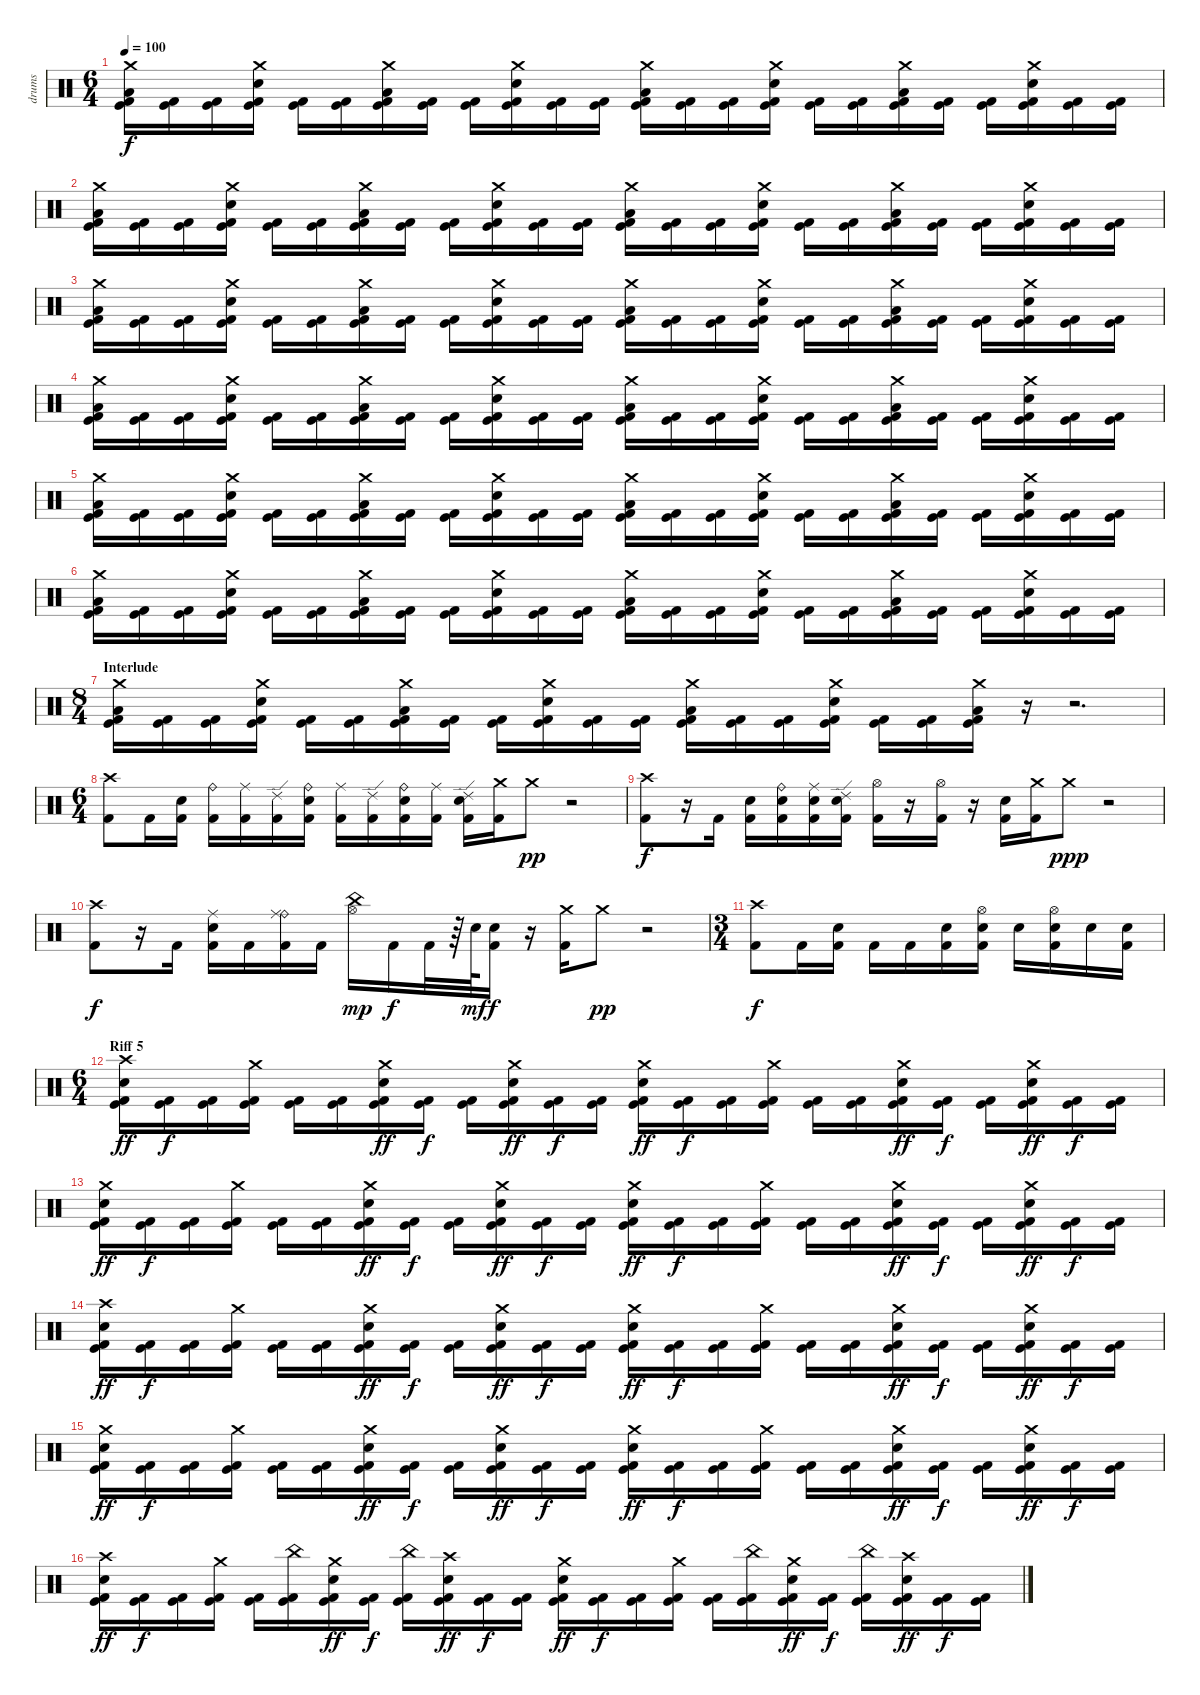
\track ("drums" "drums") {instrument percussion}
\staff {score}
\articulation defaults
\ts (6 4)
\tempo 100
\clef neutral
\ks c
("Crash medium (hit)" "Low Floor Tom (hit)" "Kick (hit)" "Kick (hit) 2").16{dy f} ("Kick (hit)" "Kick (hit) 2").16 ("Kick (hit)" "Kick (hit) 2").16 ("Crash medium (hit)" "Snare (hit) 2" "Kick (hit)" "Kick (hit) 2").16 ("Kick (hit)" "Kick (hit) 2").16 ("Kick (hit)" "Kick (hit) 2").16 ("Crash medium (hit)" "Low Floor Tom (hit)" "Kick (hit)" "Kick (hit) 2").16 ("Kick (hit)" "Kick (hit) 2").16 ("Kick (hit)" "Kick (hit) 2").16 ("Crash medium (hit)" "Snare (hit) 2" "Kick (hit)" "Kick (hit) 2").16 ("Kick (hit)" "Kick (hit) 2").16 ("Kick (hit)" "Kick (hit) 2").16 ("Crash medium (hit)" "Low Floor Tom (hit)" "Kick (hit)" "Kick (hit) 2").16 ("Kick (hit)" "Kick (hit) 2").16 ("Kick (hit)" "Kick (hit) 2").16 ("Crash medium (hit)" "Snare (hit) 2" "Kick (hit)" "Kick (hit) 2").16 ("Kick (hit)" "Kick (hit) 2").16 ("Kick (hit)" "Kick (hit) 2").16 ("Crash medium (hit)" "Low Floor Tom (hit)" "Kick (hit)" "Kick (hit) 2").16 ("Kick (hit)" "Kick (hit) 2").16 ("Kick (hit)" "Kick (hit) 2").16 ("Crash medium (hit)" "Snare (hit) 2" "Kick (hit)" "Kick (hit) 2").16 ("Kick (hit)" "Kick (hit) 2").16 ("Kick (hit)" "Kick (hit) 2").16 |
("Crash medium (hit)" "Low Floor Tom (hit)" "Kick (hit)" "Kick (hit) 2").16 ("Kick (hit)" "Kick (hit) 2").16 ("Kick (hit)" "Kick (hit) 2").16 ("Crash medium (hit)" "Snare (hit) 2" "Kick (hit)" "Kick (hit) 2").16 ("Kick (hit)" "Kick (hit) 2").16 ("Kick (hit)" "Kick (hit) 2").16 ("Crash medium (hit)" "Low Floor Tom (hit)" "Kick (hit)" "Kick (hit) 2").16 ("Kick (hit)" "Kick (hit) 2").16 ("Kick (hit)" "Kick (hit) 2").16 ("Crash medium (hit)" "Snare (hit) 2" "Kick (hit)" "Kick (hit) 2").16 ("Kick (hit)" "Kick (hit) 2").16 ("Kick (hit)" "Kick (hit) 2").16 ("Crash medium (hit)" "Low Floor Tom (hit)" "Kick (hit)" "Kick (hit) 2").16 ("Kick (hit)" "Kick (hit) 2").16 ("Kick (hit)" "Kick (hit) 2").16 ("Crash medium (hit)" "Snare (hit) 2" "Kick (hit)" "Kick (hit) 2").16 ("Kick (hit)" "Kick (hit) 2").16 ("Kick (hit)" "Kick (hit) 2").16 ("Crash medium (hit)" "Low Floor Tom (hit)" "Kick (hit)" "Kick (hit) 2").16 ("Kick (hit)" "Kick (hit) 2").16 ("Kick (hit)" "Kick (hit) 2").16 ("Crash medium (hit)" "Snare (hit) 2" "Kick (hit)" "Kick (hit) 2").16 ("Kick (hit)" "Kick (hit) 2").16 ("Kick (hit)" "Kick (hit) 2").16 |
("Crash medium (hit)" "Low Floor Tom (hit)" "Kick (hit)" "Kick (hit) 2").16 ("Kick (hit)" "Kick (hit) 2").16 ("Kick (hit)" "Kick (hit) 2").16 ("Crash medium (hit)" "Snare (hit) 2" "Kick (hit)" "Kick (hit) 2").16 ("Kick (hit)" "Kick (hit) 2").16 ("Kick (hit)" "Kick (hit) 2").16 ("Crash medium (hit)" "Low Floor Tom (hit)" "Kick (hit)" "Kick (hit) 2").16 ("Kick (hit)" "Kick (hit) 2").16 ("Kick (hit)" "Kick (hit) 2").16 ("Crash medium (hit)" "Snare (hit) 2" "Kick (hit)" "Kick (hit) 2").16 ("Kick (hit)" "Kick (hit) 2").16 ("Kick (hit)" "Kick (hit) 2").16 ("Crash medium (hit)" "Low Floor Tom (hit)" "Kick (hit)" "Kick (hit) 2").16 ("Kick (hit)" "Kick (hit) 2").16 ("Kick (hit)" "Kick (hit) 2").16 ("Crash medium (hit)" "Snare (hit) 2" "Kick (hit)" "Kick (hit) 2").16 ("Kick (hit)" "Kick (hit) 2").16 ("Kick (hit)" "Kick (hit) 2").16 ("Crash medium (hit)" "Low Floor Tom (hit)" "Kick (hit)" "Kick (hit) 2").16 ("Kick (hit)" "Kick (hit) 2").16 ("Kick (hit)" "Kick (hit) 2").16 ("Crash medium (hit)" "Snare (hit) 2" "Kick (hit)" "Kick (hit) 2").16 ("Kick (hit)" "Kick (hit) 2").16 ("Kick (hit)" "Kick (hit) 2").16 |
("Crash medium (hit)" "Low Floor Tom (hit)" "Kick (hit)" "Kick (hit) 2").16 ("Kick (hit)" "Kick (hit) 2").16 ("Kick (hit)" "Kick (hit) 2").16 ("Crash medium (hit)" "Snare (hit) 2" "Kick (hit)" "Kick (hit) 2").16 ("Kick (hit)" "Kick (hit) 2").16 ("Kick (hit)" "Kick (hit) 2").16 ("Crash medium (hit)" "Low Floor Tom (hit)" "Kick (hit)" "Kick (hit) 2").16 ("Kick (hit)" "Kick (hit) 2").16 ("Kick (hit)" "Kick (hit) 2").16 ("Crash medium (hit)" "Snare (hit) 2" "Kick (hit)" "Kick (hit) 2").16 ("Kick (hit)" "Kick (hit) 2").16 ("Kick (hit)" "Kick (hit) 2").16 ("Crash medium (hit)" "Low Floor Tom (hit)" "Kick (hit)" "Kick (hit) 2").16 ("Kick (hit)" "Kick (hit) 2").16 ("Kick (hit)" "Kick (hit) 2").16 ("Crash medium (hit)" "Snare (hit) 2" "Kick (hit)" "Kick (hit) 2").16 ("Kick (hit)" "Kick (hit) 2").16 ("Kick (hit)" "Kick (hit) 2").16 ("Crash medium (hit)" "Low Floor Tom (hit)" "Kick (hit)" "Kick (hit) 2").16 ("Kick (hit)" "Kick (hit) 2").16 ("Kick (hit)" "Kick (hit) 2").16 ("Crash medium (hit)" "Snare (hit) 2" "Kick (hit)" "Kick (hit) 2").16 ("Kick (hit)" "Kick (hit) 2").16 ("Kick (hit)" "Kick (hit) 2").16 |
("Crash medium (hit)" "Low Floor Tom (hit)" "Kick (hit)" "Kick (hit) 2").16 ("Kick (hit)" "Kick (hit) 2").16 ("Kick (hit)" "Kick (hit) 2").16 ("Crash medium (hit)" "Snare (hit) 2" "Kick (hit)" "Kick (hit) 2").16 ("Kick (hit)" "Kick (hit) 2").16 ("Kick (hit)" "Kick (hit) 2").16 ("Crash medium (hit)" "Low Floor Tom (hit)" "Kick (hit)" "Kick (hit) 2").16 ("Kick (hit)" "Kick (hit) 2").16 ("Kick (hit)" "Kick (hit) 2").16 ("Crash medium (hit)" "Snare (hit) 2" "Kick (hit)" "Kick (hit) 2").16 ("Kick (hit)" "Kick (hit) 2").16 ("Kick (hit)" "Kick (hit) 2").16 ("Crash medium (hit)" "Low Floor Tom (hit)" "Kick (hit)" "Kick (hit) 2").16 ("Kick (hit)" "Kick (hit) 2").16 ("Kick (hit)" "Kick (hit) 2").16 ("Crash medium (hit)" "Snare (hit) 2" "Kick (hit)" "Kick (hit) 2").16 ("Kick (hit)" "Kick (hit) 2").16 ("Kick (hit)" "Kick (hit) 2").16 ("Crash medium (hit)" "Low Floor Tom (hit)" "Kick (hit)" "Kick (hit) 2").16 ("Kick (hit)" "Kick (hit) 2").16 ("Kick (hit)" "Kick (hit) 2").16 ("Crash medium (hit)" "Snare (hit) 2" "Kick (hit)" "Kick (hit) 2").16 ("Kick (hit)" "Kick (hit) 2").16 ("Kick (hit)" "Kick (hit) 2").16 |
("Crash medium (hit)" "Low Floor Tom (hit)" "Kick (hit)" "Kick (hit) 2").16 ("Kick (hit)" "Kick (hit) 2").16 ("Kick (hit)" "Kick (hit) 2").16 ("Crash medium (hit)" "Snare (hit) 2" "Kick (hit)" "Kick (hit) 2").16 ("Kick (hit)" "Kick (hit) 2").16 ("Kick (hit)" "Kick (hit) 2").16 ("Crash medium (hit)" "Low Floor Tom (hit)" "Kick (hit)" "Kick (hit) 2").16 ("Kick (hit)" "Kick (hit) 2").16 ("Kick (hit)" "Kick (hit) 2").16 ("Crash medium (hit)" "Snare (hit) 2" "Kick (hit)" "Kick (hit) 2").16 ("Kick (hit)" "Kick (hit) 2").16 ("Kick (hit)" "Kick (hit) 2").16 ("Crash medium (hit)" "Low Floor Tom (hit)" "Kick (hit)" "Kick (hit) 2").16 ("Kick (hit)" "Kick (hit) 2").16 ("Kick (hit)" "Kick (hit) 2").16 ("Crash medium (hit)" "Snare (hit) 2" "Kick (hit)" "Kick (hit) 2").16 ("Kick (hit)" "Kick (hit) 2").16 ("Kick (hit)" "Kick (hit) 2").16 ("Crash medium (hit)" "Low Floor Tom (hit)" "Kick (hit)" "Kick (hit) 2").16 ("Kick (hit)" "Kick (hit) 2").16 ("Kick (hit)" "Kick (hit) 2").16 ("Crash medium (hit)" "Snare (hit) 2" "Kick (hit)" "Kick (hit) 2").16 ("Kick (hit)" "Kick (hit) 2").16 ("Kick (hit)" "Kick (hit) 2").16 |
\ts (8 4)
\section ("" "Interlude")
("Crash medium (hit)" "Low Floor Tom (hit)" "Kick (hit)" "Kick (hit) 2").16 ("Kick (hit)" "Kick (hit) 2").16 ("Kick (hit)" "Kick (hit) 2").16 ("Crash medium (hit)" "Snare (hit) 2" "Kick (hit)" "Kick (hit) 2").16 ("Kick (hit)" "Kick (hit) 2").16 ("Kick (hit)" "Kick (hit) 2").16 ("Crash medium (hit)" "Low Floor Tom (hit)" "Kick (hit)" "Kick (hit) 2").16 ("Kick (hit)" "Kick (hit) 2").16 ("Kick (hit)" "Kick (hit) 2").16 ("Crash medium (hit)" "Snare (hit) 2" "Kick (hit)" "Kick (hit) 2").16 ("Kick (hit)" "Kick (hit) 2").16 ("Kick (hit)" "Kick (hit) 2").16 ("Crash medium (hit)" "Low Floor Tom (hit)" "Kick (hit)" "Kick (hit) 2").16 ("Kick (hit)" "Kick (hit) 2").16 ("Kick (hit)" "Kick (hit) 2").16 ("Crash medium (hit)" "Snare (hit) 2" "Kick (hit)" "Kick (hit) 2").16 ("Kick (hit)" "Kick (hit) 2").16 ("Kick (hit)" "Kick (hit) 2").16 ("Crash medium (hit)" "Low Floor Tom (hit)" "Kick (hit)" "Kick (hit) 2").16 r.16 r.2{d} |
\ts (6 4)
("Crash high (hit)" "Kick (hit) 2").8 "Kick (hit) 2".16 ("Electric Snare (hit)" "Kick (hit) 2").16 ("Ride (bell)" "Kick (hit) 2").16 ("Ride (middle)" "Kick (hit) 2").16 ("Ride (edge) 2" "Kick (hit) 2").16 ("Ride (bell)" "Electric Snare (hit)" "Kick (hit) 2").16 ("Ride (middle)" "Kick (hit) 2").16 ("Ride (edge) 2" "Kick (hit) 2").16 ("Ride (bell)" "Electric Snare (hit)" "Kick (hit) 2").16 ("Ride (middle)" "Kick (hit) 2").16 ("Ride (edge) 2" "Electric Snare (hit)" "Kick (hit) 2").16 ("Crash medium (hit)" "Kick (hit) 2").16 "Crash medium (hit)".8{dy pp} r.2 |
("Crash high (hit)" "Kick (hit) 2").8{dy f} r.16 "Kick (hit) 2".16 ("Electric Snare (hit)" "Kick (hit) 2").16 ("Ride (bell)" "Electric Snare (hit)" "Kick (hit) 2").16 ("Ride (middle)" "Electric Snare (hit)" "Kick (hit) 2").16 ("Ride (edge) 2" "Electric Snare (hit)" "Kick (hit) 2").16 ("Hi-Hat (open)" "Kick (hit) 2").16 r.16 ("Hi-Hat (open)" "Kick (hit) 2").16 r.16 ("Electric Snare (hit)" "Kick (hit) 2").16 ("Crash medium (hit)" "Kick (hit) 2").16 "Crash medium (hit)".8{dy ppp} r.2 |
("Crash high (hit)" "Kick (hit) 2").8{dy f} r.16 "Kick (hit) 2".16 ("Ride (middle)" "Electric Snare (hit)" "Kick (hit) 2").16 "Kick (hit) 2".16 ("Ride (bell)" "Ride (middle)" "Kick (hit) 2").16{balance 16} "Kick (hit) 2".16{balance 8} ("China (hit)" "Hi-Hat (open)").16{dy mp} "Kick (hit) 2".16{dy f} "Kick (hit) 2".32 r.64 "Electric Snare (hit)".64{dy mf} ("Electric Snare (hit)" "Kick (hit) 2").16{dy f} r.16 ("Crash medium (hit)" "Kick (hit) 2").16 "Crash medium (hit)".8{dy pp} r.2 |
\ts (3 4)
("Crash high (hit)" "Kick (hit) 2").8{dy f} "Kick (hit) 2".16 ("Electric Snare (hit)" "Kick (hit) 2").16 "Kick (hit) 2".16 "Kick (hit) 2".16 ("Electric Snare (hit)" "Kick (hit) 2").16 ("Hi-Hat (open)" "Electric Snare (hit)" "Kick (hit) 2").16 "Electric Snare (hit)".16 ("Hi-Hat (open)" "Electric Snare (hit)" "Kick (hit) 2").16 "Electric Snare (hit)".16 ("Electric Snare (hit)" "Kick (hit) 2").16 |
\ts (6 4)
\section ("" "Riff 5")
("Crash high (hit)" "Electric Snare (hit)" "Kick (hit)" "Kick (hit) 2").16{dy ff} ("Kick (hit)" "Kick (hit) 2").16{dy f} ("Kick (hit)" "Kick (hit) 2").16 ("Crash medium (hit)" "Kick (hit)" "Kick (hit) 2").16 ("Kick (hit)" "Kick (hit) 2").16 ("Kick (hit)" "Kick (hit) 2").16 ("Crash medium (hit)" "Electric Snare (hit)" "Kick (hit)" "Kick (hit) 2").16{dy ff} ("Kick (hit)" "Kick (hit) 2").16{dy f} ("Kick (hit)" "Kick (hit) 2").16 ("Crash medium (hit)" "Electric Snare (hit)" "Kick (hit)" "Kick (hit) 2").16{dy ff} ("Kick (hit)" "Kick (hit) 2").16{dy f} ("Kick (hit)" "Kick (hit) 2").16 ("Crash medium (hit)" "Electric Snare (hit)" "Kick (hit)" "Kick (hit) 2").16{dy ff} ("Kick (hit)" "Kick (hit) 2").16{dy f} ("Kick (hit)" "Kick (hit) 2").16 ("Crash medium (hit)" "Kick (hit)" "Kick (hit) 2").16 ("Kick (hit)" "Kick (hit) 2").16 ("Kick (hit)" "Kick (hit) 2").16 ("Crash medium (hit)" "Electric Snare (hit)" "Kick (hit)" "Kick (hit) 2").16{dy ff} ("Kick (hit)" "Kick (hit) 2").16{dy f} ("Kick (hit)" "Kick (hit) 2").16 ("Crash medium (hit)" "Electric Snare (hit)" "Kick (hit)" "Kick (hit) 2").16{dy ff} ("Kick (hit)" "Kick (hit) 2").16{dy f} ("Kick (hit)" "Kick (hit) 2").16 |
("Crash medium (hit)" "Electric Snare (hit)" "Kick (hit)" "Kick (hit) 2").16{dy ff} ("Kick (hit)" "Kick (hit) 2").16{dy f} ("Kick (hit)" "Kick (hit) 2").16 ("Crash medium (hit)" "Kick (hit)" "Kick (hit) 2").16 ("Kick (hit)" "Kick (hit) 2").16 ("Kick (hit)" "Kick (hit) 2").16 ("Crash medium (hit)" "Electric Snare (hit)" "Kick (hit)" "Kick (hit) 2").16{dy ff} ("Kick (hit)" "Kick (hit) 2").16{dy f} ("Kick (hit)" "Kick (hit) 2").16 ("Crash medium (hit)" "Electric Snare (hit)" "Kick (hit)" "Kick (hit) 2").16{dy ff} ("Kick (hit)" "Kick (hit) 2").16{dy f} ("Kick (hit)" "Kick (hit) 2").16 ("Crash medium (hit)" "Electric Snare (hit)" "Kick (hit)" "Kick (hit) 2").16{dy ff} ("Kick (hit)" "Kick (hit) 2").16{dy f} ("Kick (hit)" "Kick (hit) 2").16 ("Crash medium (hit)" "Kick (hit)" "Kick (hit) 2").16 ("Kick (hit)" "Kick (hit) 2").16 ("Kick (hit)" "Kick (hit) 2").16 ("Crash medium (hit)" "Electric Snare (hit)" "Kick (hit)" "Kick (hit) 2").16{dy ff} ("Kick (hit)" "Kick (hit) 2").16{dy f} ("Kick (hit)" "Kick (hit) 2").16 ("Crash medium (hit)" "Electric Snare (hit)" "Kick (hit)" "Kick (hit) 2").16{dy ff} ("Kick (hit)" "Kick (hit) 2").16{dy f} ("Kick (hit)" "Kick (hit) 2").16 |
("Crash high (hit)" "Electric Snare (hit)" "Kick (hit)" "Kick (hit) 2").16{dy ff} ("Kick (hit)" "Kick (hit) 2").16{dy f} ("Kick (hit)" "Kick (hit) 2").16 ("Crash medium (hit)" "Kick (hit)" "Kick (hit) 2").16 ("Kick (hit)" "Kick (hit) 2").16 ("Kick (hit)" "Kick (hit) 2").16 ("Crash medium (hit)" "Electric Snare (hit)" "Kick (hit)" "Kick (hit) 2").16{dy ff} ("Kick (hit)" "Kick (hit) 2").16{dy f} ("Kick (hit)" "Kick (hit) 2").16 ("Crash medium (hit)" "Electric Snare (hit)" "Kick (hit)" "Kick (hit) 2").16{dy ff} ("Kick (hit)" "Kick (hit) 2").16{dy f} ("Kick (hit)" "Kick (hit) 2").16 ("Crash medium (hit)" "Electric Snare (hit)" "Kick (hit)" "Kick (hit) 2").16{dy ff} ("Kick (hit)" "Kick (hit) 2").16{dy f} ("Kick (hit)" "Kick (hit) 2").16 ("Crash medium (hit)" "Kick (hit)" "Kick (hit) 2").16 ("Kick (hit)" "Kick (hit) 2").16 ("Kick (hit)" "Kick (hit) 2").16 ("Crash medium (hit)" "Electric Snare (hit)" "Kick (hit)" "Kick (hit) 2").16{dy ff} ("Kick (hit)" "Kick (hit) 2").16{dy f} ("Kick (hit)" "Kick (hit) 2").16 ("Crash medium (hit)" "Electric Snare (hit)" "Kick (hit)" "Kick (hit) 2").16{dy ff} ("Kick (hit)" "Kick (hit) 2").16{dy f} ("Kick (hit)" "Kick (hit) 2").16 |
("Crash medium (hit)" "Electric Snare (hit)" "Kick (hit)" "Kick (hit) 2").16{dy ff} ("Kick (hit)" "Kick (hit) 2").16{dy f} ("Kick (hit)" "Kick (hit) 2").16 ("Crash medium (hit)" "Kick (hit)" "Kick (hit) 2").16 ("Kick (hit)" "Kick (hit) 2").16 ("Kick (hit)" "Kick (hit) 2").16 ("Crash medium (hit)" "Electric Snare (hit)" "Kick (hit)" "Kick (hit) 2").16{dy ff} ("Kick (hit)" "Kick (hit) 2").16{dy f} ("Kick (hit)" "Kick (hit) 2").16 ("Crash medium (hit)" "Electric Snare (hit)" "Kick (hit)" "Kick (hit) 2").16{dy ff} ("Kick (hit)" "Kick (hit) 2").16{dy f} ("Kick (hit)" "Kick (hit) 2").16 ("Crash medium (hit)" "Electric Snare (hit)" "Kick (hit)" "Kick (hit) 2").16{dy ff} ("Kick (hit)" "Kick (hit) 2").16{dy f} ("Kick (hit)" "Kick (hit) 2").16 ("Crash medium (hit)" "Kick (hit)" "Kick (hit) 2").16 ("Kick (hit)" "Kick (hit) 2").16 ("Kick (hit)" "Kick (hit) 2").16 ("Crash medium (hit)" "Electric Snare (hit)" "Kick (hit)" "Kick (hit) 2").16{dy ff} ("Kick (hit)" "Kick (hit) 2").16{dy f} ("Kick (hit)" "Kick (hit) 2").16 ("Crash medium (hit)" "Electric Snare (hit)" "Kick (hit)" "Kick (hit) 2").16{dy ff} ("Kick (hit)" "Kick (hit) 2").16{dy f} ("Kick (hit)" "Kick (hit) 2").16 |
("Crash high (hit)" "Electric Snare (hit)" "Kick (hit)" "Kick (hit) 2").16{dy ff} ("Kick (hit)" "Kick (hit) 2").16{dy f} ("Kick (hit)" "Kick (hit) 2").16 ("Crash medium (hit)" "Kick (hit)" "Kick (hit) 2").16 ("Kick (hit)" "Kick (hit) 2").16 ("China (hit)" "Kick (hit)" "Kick (hit) 2").16 ("Crash medium (hit)" "Electric Snare (hit)" "Kick (hit)" "Kick (hit) 2").16{dy ff} ("Kick (hit)" "Kick (hit) 2").16{dy f} ("China (hit)" "Kick (hit)" "Kick (hit) 2").16 ("Crash high (hit)" "Electric Snare (hit)" "Kick (hit)" "Kick (hit) 2").16{dy ff} ("Kick (hit)" "Kick (hit) 2").16{dy f} ("Kick (hit)" "Kick (hit) 2").16 ("Crash medium (hit)" "Electric Snare (hit)" "Kick (hit)" "Kick (hit) 2").16{dy ff} ("Kick (hit)" "Kick (hit) 2").16{dy f} ("Kick (hit)" "Kick (hit) 2").16 ("Crash medium (hit)" "Kick (hit)" "Kick (hit) 2").16 ("Kick (hit)" "Kick (hit) 2").16 ("China (hit)" "Kick (hit)" "Kick (hit) 2").16 ("Crash medium (hit)" "Electric Snare (hit)" "Kick (hit)" "Kick (hit) 2").16{dy ff} ("Kick (hit)" "Kick (hit) 2").16{dy f} ("China (hit)" "Kick (hit)" "Kick (hit) 2").16 ("Crash high (hit)" "Electric Snare (hit)" "Kick (hit)" "Kick (hit) 2").16{dy ff} ("Kick (hit)" "Kick (hit) 2").16{dy f} ("Kick (hit)" "Kick (hit) 2").16
